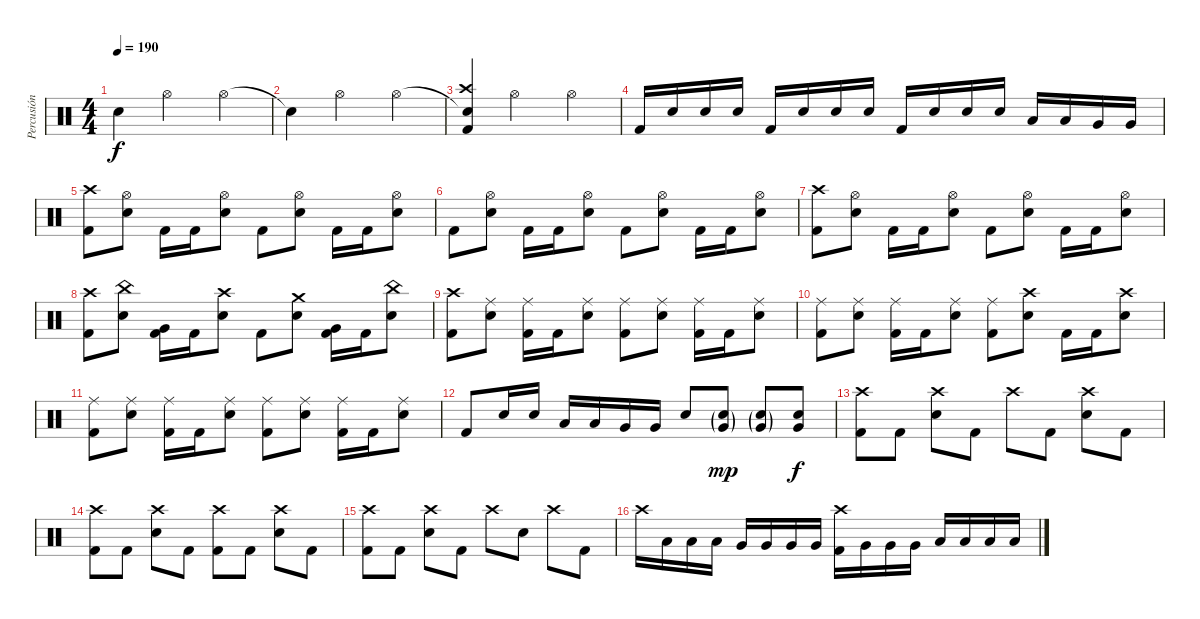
\track ("Percusión" "Percusión") {instrument percussion}
\staff {score}
\articulation defaults
\ts (4 4)
\tempo 190
\clef neutral
\ks c "Snare (hit)"{t}.4{dy f} "Hi-Hat (open)".2 "Hi-Hat (open)".4
|
"Snare (hit)"{t}.4 "Hi-Hat (open)".2 "Hi-Hat (open)".4 |
("Snare (hit)"{t} "Crash high (hit)" "Kick (hit) 2").4 "Hi-Hat (open)".2 "Hi-Hat (open)".4 |
"Kick (hit) 2".16 "Electric Snare (hit)".16 "Electric Snare (hit)".16 "Electric Snare (hit)".16 "Kick (hit) 2".16 "Electric Snare (hit)".16 "Electric Snare (hit)".16 "Electric Snare (hit)".16 "Kick (hit) 2".16 "Electric Snare (hit)".16 "Electric Snare (hit)".16 "Electric Snare (hit)".16 "Low Tom (hit)".16 "Low Tom (hit)".16 "Very Low Tom (hit)".16 "Very Low Tom (hit)".16 |
("Crash high (hit)" "Kick (hit) 2").8 ("Hi-Hat (open)" "Electric Snare (hit)").8 "Kick (hit) 2".16 "Kick (hit) 2".16 ("Hi-Hat (open)" "Electric Snare (hit)").8 "Kick (hit) 2".8 ("Hi-Hat (open)" "Electric Snare (hit)").8 "Kick (hit) 2".16 "Kick (hit) 2".16 ("Hi-Hat (open)" "Electric Snare (hit)").8 |
"Kick (hit) 2".8 ("Hi-Hat (open)" "Electric Snare (hit)").8 "Kick (hit) 2".16 "Kick (hit) 2".16 ("Hi-Hat (open)" "Electric Snare (hit)").8 "Kick (hit) 2".8 ("Hi-Hat (open)" "Electric Snare (hit)").8 "Kick (hit) 2".16 "Kick (hit) 2".16 ("Hi-Hat (open)" "Electric Snare (hit)").8 |
("Crash high (hit)" "Kick (hit) 2").8 ("Hi-Hat (open)" "Electric Snare (hit)").8 "Kick (hit) 2".16 "Kick (hit) 2".16 ("Hi-Hat (open)" "Electric Snare (hit)").8 "Kick (hit) 2".8 ("Hi-Hat (open)" "Electric Snare (hit)").8 "Kick (hit) 2".16 "Kick (hit) 2".16 ("Hi-Hat (open)" "Electric Snare (hit)").8 |
("Crash high (hit)" "Kick (hit) 2").8 ("China (hit)" "Electric Snare (hit)").8 ("Very Low Tom (hit)" "Kick (hit) 2").16 "Kick (hit) 2".16 ("Crash high (hit)" "Electric Snare (hit)").8 "Kick (hit) 2".8 ("Crash medium (hit)" "Electric Snare (hit)").8 ("Very Low Tom (hit)" "Kick (hit) 2").16 "Kick (hit) 2".16 ("China (hit)" "Electric Snare (hit)").8 |
("Crash high (hit)" "Kick (hit) 2").8 ("Ride (middle)" "Electric Snare (hit)").8 ("Ride (middle)" "Kick (hit) 2").16 "Kick (hit) 2".16 ("Ride (middle)" "Electric Snare (hit)").8 ("Ride (middle)" "Kick (hit) 2").8 ("Ride (middle)" "Electric Snare (hit)").8 ("Ride (middle)" "Kick (hit) 2").16 "Kick (hit) 2".16 ("Ride (middle)" "Electric Snare (hit)").8 |
("Ride (middle)" "Kick (hit) 2").8 ("Ride (middle)" "Electric Snare (hit)").8 ("Ride (middle)" "Kick (hit) 2").16 "Kick (hit) 2".16 ("Ride (middle)" "Electric Snare (hit)").8 ("Ride (middle)" "Kick (hit) 2").8 ("Crash high (hit)" "Electric Snare (hit)").8 "Kick (hit) 2".16 "Kick (hit) 2".16 ("Crash high (hit)" "Electric Snare (hit)").8 |
("Ride (middle)" "Kick (hit) 2").8 ("Ride (middle)" "Electric Snare (hit)").8 ("Ride (middle)" "Kick (hit) 2").16 "Kick (hit) 2".16 ("Ride (middle)" "Electric Snare (hit)").8 ("Ride (middle)" "Kick (hit) 2").8 ("Ride (middle)" "Electric Snare (hit)").8 ("Ride (middle)" "Kick (hit) 2").16 "Kick (hit) 2".16 ("Ride (middle)" "Electric Snare (hit)").8 |
"Kick (hit) 2".8 "Electric Snare (hit)".16 "Electric Snare (hit)".16 "Low Tom (hit)".16 "Low Tom (hit)".16 "Very Low Tom (hit)".16 "Very Low Tom (hit)".16 "Electric Snare (hit)".8 ("Very Low Tom (hit)"{g} "Electric Snare (hit)"{g}).8{dy mp} ("Very Low Tom (hit)"{g} "Electric Snare (hit)"{g}).8 ("Very Low Tom (hit)" "Electric Snare (hit)").8{dy f} |
("Crash high (hit)" "Kick (hit) 2").8 "Kick (hit) 2".8 ("Crash high (hit)" "Electric Snare (hit)").8 "Kick (hit) 2".8 "Crash high (hit)".8 "Kick (hit) 2".8 ("Crash high (hit)" "Electric Snare (hit)").8 "Kick (hit) 2".8 |
("Crash high (hit)" "Kick (hit) 2").8 "Kick (hit) 2".8 ("Crash high (hit)" "Electric Snare (hit)").8 "Kick (hit) 2".8 ("Crash high (hit)" "Kick (hit) 2").8 "Kick (hit) 2".8 ("Crash high (hit)" "Electric Snare (hit)").8 "Kick (hit) 2".8 |
("Crash high (hit)" "Kick (hit) 2").8 "Kick (hit) 2".8 ("Crash high (hit)" "Electric Snare (hit)").8 "Kick (hit) 2".8 "Crash high (hit)".8 "Electric Snare (hit)".8 "Crash high (hit)".8 "Kick (hit) 2".8 |
"Crash high (hit)".16 "Low Tom (hit)".16 "Low Tom (hit)".16 "Low Tom (hit)".16 "Very Low Tom (hit)".16 "Very Low Tom (hit)".16 "Very Low Tom (hit)".16 "Very Low Tom (hit)".16 ("Crash high (hit)" "Kick (hit) 2").16 "Very Low Tom (hit)".16 "Very Low Tom (hit)".16 "Very Low Tom (hit)".16 "Low Floor Tom (hit)".16 "Low Floor Tom (hit)".16 "Low Floor Tom (hit)".16 "Low Floor Tom (hit)".16
